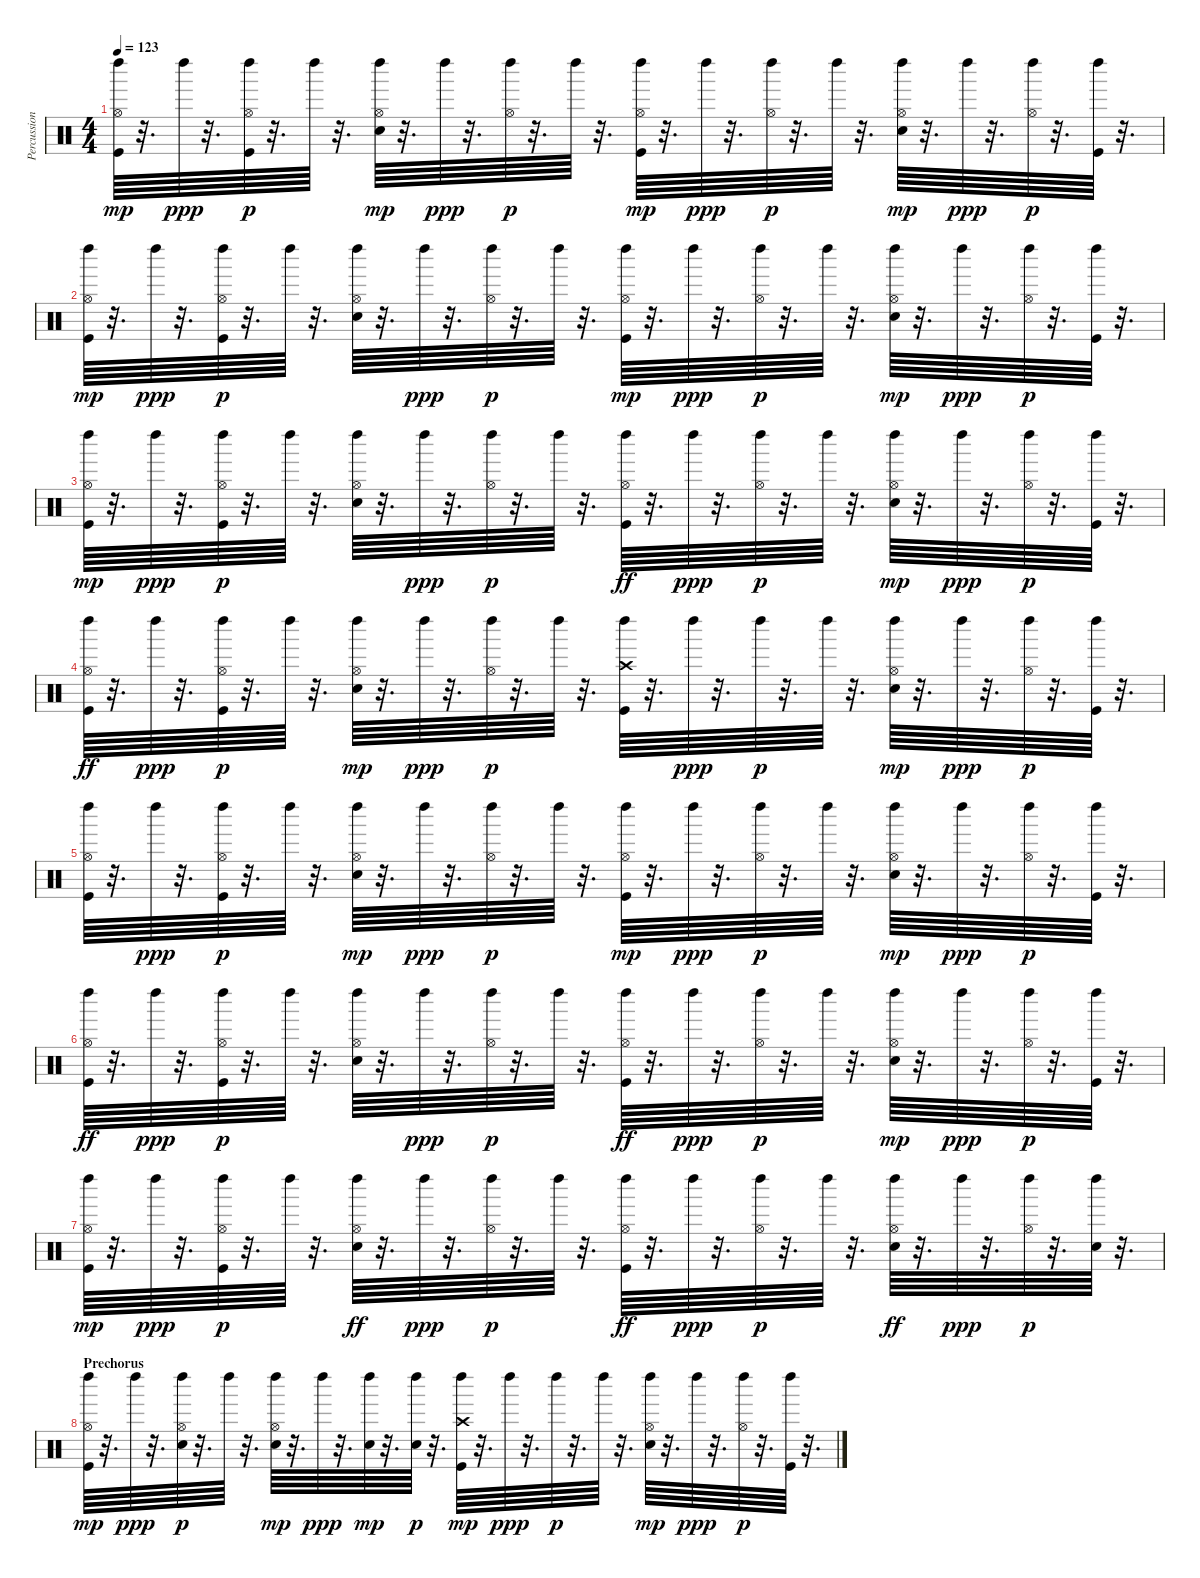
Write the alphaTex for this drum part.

\track ("Percussion" "Percussion") {instrument percussion}
\staff {score}
\articulation defaults
\ts (4 4)
\tempo 123
\clef neutral
\ks c
("Kick (hit)" "Hi-Hat (open)" "Left Maraca (hit)").64{dy mp} r.32{d} "Left Maraca (hit)".64{dy ppp} r.32{d} ("Left Maraca (hit)" "Kick (hit)" "Hi-Hat (open)").64{dy p} r.32{d} "Left Maraca (hit)".64 r.32{d} ("Electric Snare (hit)" "Hi-Hat (open)" "Left Maraca (hit)").64{dy mp} r.32{d} "Left Maraca (hit)".64{dy ppp} r.32{d} ("Hi-Hat (open)" "Left Maraca (hit)").64{dy p} r.32{d} "Left Maraca (hit)".64 r.32{d} ("Kick (hit)" "Hi-Hat (open)" "Left Maraca (hit)").64{dy mp} r.32{d} "Left Maraca (hit)".64{dy ppp} r.32{d} ("Hi-Hat (open)" "Left Maraca (hit)").64{dy p} r.32{d} "Left Maraca (hit)".64 r.32{d} ("Electric Snare (hit)" "Hi-Hat (open)" "Left Maraca (hit)").64{dy mp} r.32{d} "Left Maraca (hit)".64{dy ppp} r.32{d} ("Hi-Hat (open)" "Left Maraca (hit)").64{dy p} r.32{d} ("Kick (hit)" "Left Maraca (hit)").64 r.32{d} |
("Kick (hit)" "Hi-Hat (open)" "Left Maraca (hit)").64{dy mp} r.32{d} "Left Maraca (hit)".64{dy ppp} r.32{d} ("Left Maraca (hit)" "Kick (hit)" "Hi-Hat (open)").64{dy p} r.32{d} "Left Maraca (hit)".64 r.32{d} ("Left Maraca (hit)" "Electric Snare (hit)" "Hi-Hat (open)").64 r.32{d} "Left Maraca (hit)".64{dy ppp} r.32{d} ("Hi-Hat (open)" "Left Maraca (hit)").64{dy p} r.32{d} "Left Maraca (hit)".64 r.32{d} ("Kick (hit)" "Hi-Hat (open)" "Left Maraca (hit)").64{dy mp} r.32{d} "Left Maraca (hit)".64{dy ppp} r.32{d} ("Hi-Hat (open)" "Left Maraca (hit)").64{dy p} r.32{d} "Left Maraca (hit)".64 r.32{d} ("Electric Snare (hit)" "Hi-Hat (open)" "Left Maraca (hit)").64{dy mp} r.32{d} "Left Maraca (hit)".64{dy ppp} r.32{d} ("Hi-Hat (open)" "Left Maraca (hit)").64{dy p} r.32{d} ("Kick (hit)" "Left Maraca (hit)").64 r.32{d} |
("Kick (hit)" "Hi-Hat (open)" "Left Maraca (hit)").64{dy mp} r.32{d} "Left Maraca (hit)".64{dy ppp} r.32{d} ("Kick (hit)" "Hi-Hat (open)" "Left Maraca (hit)").64{dy p} r.32{d} "Left Maraca (hit)".64 r.32{d} ("Left Maraca (hit)" "Electric Snare (hit)" "Hi-Hat (open)").64 r.32{d} "Left Maraca (hit)".64{dy ppp} r.32{d} ("Hi-Hat (open)" "Left Maraca (hit)").64{dy p} r.32{d} "Left Maraca (hit)".64 r.32{d} ("Hi-Hat (open)" "Left Maraca (hit)" "Kick (hit)").64{dy ff} r.32{d} "Left Maraca (hit)".64{dy ppp} r.32{d} ("Hi-Hat (open)" "Left Maraca (hit)").64{dy p} r.32{d} "Left Maraca (hit)".64 r.32{d} ("Electric Snare (hit)" "Hi-Hat (open)" "Left Maraca (hit)").64{dy mp} r.32{d} "Left Maraca (hit)".64{dy ppp} r.32{d} ("Hi-Hat (open)" "Left Maraca (hit)").64{dy p} r.32{d} ("Kick (hit)" "Left Maraca (hit)").64 r.32{d} |
("Hi-Hat (open)" "Left Maraca (hit)" "Kick (hit)").64{dy ff} r.32{d} "Left Maraca (hit)".64{dy ppp} r.32{d} ("Kick (hit)" "Hi-Hat (open)" "Left Maraca (hit)").64{dy p} r.32{d} "Left Maraca (hit)".64 r.32{d} ("Electric Snare (hit)" "Hi-Hat (open)" "Left Maraca (hit)").64{dy mp} r.32{d} "Left Maraca (hit)".64{dy ppp} r.32{d} ("Hi-Hat (open)" "Left Maraca (hit)").64{dy p} r.32{d} "Left Maraca (hit)".64 r.32{d} ("Left Maraca (hit)" "Kick (hit)" "Crash high (hit)").64 r.32{d} "Left Maraca (hit)".64{dy ppp} r.32{d} "Left Maraca (hit)".64{dy p} r.32{d} "Left Maraca (hit)".64 r.32{d} ("Electric Snare (hit)" "Hi-Hat (open)" "Left Maraca (hit)").64{dy mp} r.32{d} "Left Maraca (hit)".64{dy ppp} r.32{d} ("Hi-Hat (open)" "Left Maraca (hit)").64{dy p} r.32{d} ("Kick (hit)" "Left Maraca (hit)").64 r.32{d} |
("Left Maraca (hit)" "Kick (hit)" "Hi-Hat (open)").64 r.32{d} "Left Maraca (hit)".64{dy ppp} r.32{d} ("Kick (hit)" "Hi-Hat (open)" "Left Maraca (hit)").64{dy p} r.32{d} "Left Maraca (hit)".64 r.32{d} ("Electric Snare (hit)" "Hi-Hat (open)" "Left Maraca (hit)").64{dy mp} r.32{d} "Left Maraca (hit)".64{dy ppp} r.32{d} ("Hi-Hat (open)" "Left Maraca (hit)").64{dy p} r.32{d} "Left Maraca (hit)".64 r.32{d} ("Kick (hit)" "Hi-Hat (open)" "Left Maraca (hit)").64{dy mp} r.32{d} "Left Maraca (hit)".64{dy ppp} r.32{d} ("Hi-Hat (open)" "Left Maraca (hit)").64{dy p} r.32{d} "Left Maraca (hit)".64 r.32{d} ("Electric Snare (hit)" "Hi-Hat (open)" "Left Maraca (hit)").64{dy mp} r.32{d} "Left Maraca (hit)".64{dy ppp} r.32{d} ("Hi-Hat (open)" "Left Maraca (hit)").64{dy p} r.32{d} ("Kick (hit)" "Left Maraca (hit)").64 r.32{d} |
("Hi-Hat (open)" "Left Maraca (hit)" "Kick (hit)").64{dy ff} r.32{d} "Left Maraca (hit)".64{dy ppp} r.32{d} ("Kick (hit)" "Hi-Hat (open)" "Left Maraca (hit)").64{dy p} r.32{d} "Left Maraca (hit)".64 r.32{d} ("Left Maraca (hit)" "Electric Snare (hit)" "Hi-Hat (open)").64 r.32{d} "Left Maraca (hit)".64{dy ppp} r.32{d} ("Hi-Hat (open)" "Left Maraca (hit)").64{dy p} r.32{d} "Left Maraca (hit)".64 r.32{d} ("Hi-Hat (open)" "Left Maraca (hit)" "Kick (hit)").64{dy ff} r.32{d} "Left Maraca (hit)".64{dy ppp} r.32{d} ("Hi-Hat (open)" "Left Maraca (hit)").64{dy p} r.32{d} "Left Maraca (hit)".64 r.32{d} ("Electric Snare (hit)" "Hi-Hat (open)" "Left Maraca (hit)").64{dy mp} r.32{d} "Left Maraca (hit)".64{dy ppp} r.32{d} ("Hi-Hat (open)" "Left Maraca (hit)").64{dy p} r.32{d} ("Kick (hit)" "Left Maraca (hit)").64 r.32{d} |
("Kick (hit)" "Hi-Hat (open)" "Left Maraca (hit)").64{dy mp} r.32{d} "Left Maraca (hit)".64{dy ppp} r.32{d} ("Left Maraca (hit)" "Kick (hit)" "Hi-Hat (open)").64{dy p} r.32{d} "Left Maraca (hit)".64 r.32{d} ("Hi-Hat (open)" "Left Maraca (hit)" "Electric Snare (hit)").64{dy ff} r.32{d} "Left Maraca (hit)".64{dy ppp} r.32{d} ("Hi-Hat (open)" "Left Maraca (hit)").64{dy p} r.32{d} "Left Maraca (hit)".64 r.32{d} ("Hi-Hat (open)" "Left Maraca (hit)" "Kick (hit)").64{dy ff} r.32{d} "Left Maraca (hit)".64{dy ppp} r.32{d} ("Hi-Hat (open)" "Left Maraca (hit)").64{dy p} r.32{d} "Left Maraca (hit)".64 r.32{d} ("Hi-Hat (open)" "Left Maraca (hit)" "Electric Snare (hit)").64{dy ff} r.32{d} "Left Maraca (hit)".64{dy ppp} r.32{d} ("Hi-Hat (open)" "Left Maraca (hit)").64{dy p} r.32{d} ("Electric Snare (hit)" "Left Maraca (hit)").64 r.32{d} |
\section ("" "Prechorus")
("Kick (hit)" "Hi-Hat (open)" "Left Maraca (hit)").64{dy mp} r.32{d} "Left Maraca (hit)".64{dy ppp} r.32{d} ("Electric Snare (hit)" "Hi-Hat (open)" "Left Maraca (hit)").64{dy p} r.32{d} "Left Maraca (hit)".64 r.32{d} ("Electric Snare (hit)" "Hi-Hat (open)" "Left Maraca (hit)").64{dy mp} r.32{d} "Left Maraca (hit)".64{dy ppp} r.32{d} ("Left Maraca (hit)" "Electric Snare (hit)").64{dy mp} r.32{d} ("Electric Snare (hit)" "Left Maraca (hit)").64{dy p} r.32{d} ("Kick (hit)" "Crash high (hit)" "Left Maraca (hit)").64{dy mp} r.32{d} "Left Maraca (hit)".64{dy ppp} r.32{d} "Left Maraca (hit)".64{dy p} r.32{d} "Left Maraca (hit)".64 r.32{d} ("Electric Snare (hit)" "Hi-Hat (open)" "Left Maraca (hit)").64{dy mp} r.32{d} "Left Maraca (hit)".64{dy ppp} r.32{d} ("Hi-Hat (open)" "Left Maraca (hit)").64{dy p} r.32{d} ("Kick (hit)" "Left Maraca (hit)").64 r.32{d}
